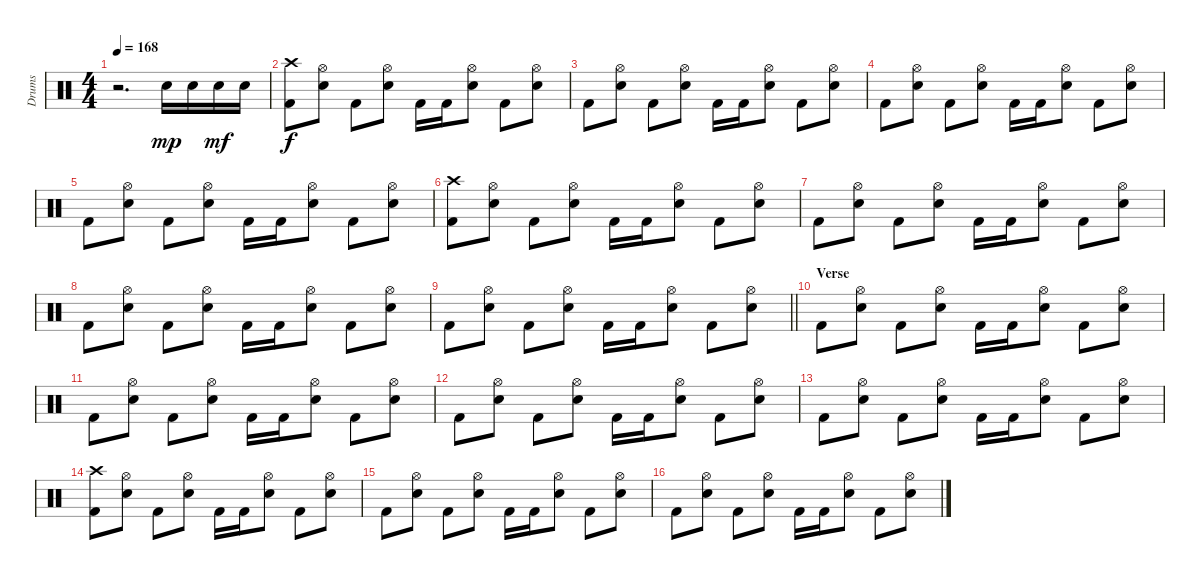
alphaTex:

\track ("Drums" "Drums") {instrument percussion}
\staff {score}
\articulation defaults
\ts (4 4)
\tempo 168
\clef neutral
\ks c
r.2{d dy mp} "Snare (hit) 2".16 "Snare (hit) 2".16 "Snare (hit) 2".16{dy mf} "Snare (hit) 2".16 |
("Kick (hit) 2" "Crash high (hit)").8{dy f} ("Snare (hit) 2" "Hi-Hat (open)").8 "Kick (hit) 2".8 ("Snare (hit) 2" "Hi-Hat (open)").8 "Kick (hit) 2".16 "Kick (hit) 2".16 ("Snare (hit) 2" "Hi-Hat (open)").8 "Kick (hit) 2".8 ("Snare (hit) 2" "Hi-Hat (open)").8 |
"Kick (hit) 2".8 ("Snare (hit) 2" "Hi-Hat (open)").8 "Kick (hit) 2".8 ("Snare (hit) 2" "Hi-Hat (open)").8 "Kick (hit) 2".16 "Kick (hit) 2".16 ("Snare (hit) 2" "Hi-Hat (open)").8 "Kick (hit) 2".8 ("Snare (hit) 2" "Hi-Hat (open)").8 |
"Kick (hit) 2".8 ("Snare (hit) 2" "Hi-Hat (open)").8 "Kick (hit) 2".8 ("Snare (hit) 2" "Hi-Hat (open)").8 "Kick (hit) 2".16 "Kick (hit) 2".16 ("Snare (hit) 2" "Hi-Hat (open)").8 "Kick (hit) 2".8 ("Snare (hit) 2" "Hi-Hat (open)").8 |
"Kick (hit) 2".8 ("Snare (hit) 2" "Hi-Hat (open)").8 "Kick (hit) 2".8 ("Snare (hit) 2" "Hi-Hat (open)").8 "Kick (hit) 2".16 "Kick (hit) 2".16 ("Snare (hit) 2" "Hi-Hat (open)").8 "Kick (hit) 2".8 ("Snare (hit) 2" "Hi-Hat (open)").8 |
("Kick (hit) 2" "Crash high (hit)").8 ("Snare (hit) 2" "Hi-Hat (open)").8 "Kick (hit) 2".8 ("Snare (hit) 2" "Hi-Hat (open)").8 "Kick (hit) 2".16 "Kick (hit) 2".16 ("Snare (hit) 2" "Hi-Hat (open)").8 "Kick (hit) 2".8 ("Snare (hit) 2" "Hi-Hat (open)").8 |
"Kick (hit) 2".8 ("Snare (hit) 2" "Hi-Hat (open)").8 "Kick (hit) 2".8 ("Snare (hit) 2" "Hi-Hat (open)").8 "Kick (hit) 2".16 "Kick (hit) 2".16 ("Snare (hit) 2" "Hi-Hat (open)").8 "Kick (hit) 2".8 ("Snare (hit) 2" "Hi-Hat (open)").8 |
"Kick (hit) 2".8 ("Snare (hit) 2" "Hi-Hat (open)").8 "Kick (hit) 2".8 ("Snare (hit) 2" "Hi-Hat (open)").8 "Kick (hit) 2".16 "Kick (hit) 2".16 ("Snare (hit) 2" "Hi-Hat (open)").8 "Kick (hit) 2".8 ("Snare (hit) 2" "Hi-Hat (open)").8 |
\barLineRight lightlight "Kick (hit) 2".8
("Snare (hit) 2" "Hi-Hat (open)").8 "Kick (hit) 2".8 ("Snare (hit) 2" "Hi-Hat (open)").8 "Kick (hit) 2".16 "Kick (hit) 2".16 ("Snare (hit) 2" "Hi-Hat (open)").8 "Kick (hit) 2".8 ("Snare (hit) 2" "Hi-Hat (open)").8 |
\section ("" "Verse")
"Kick (hit) 2".8 ("Snare (hit) 2" "Hi-Hat (open)").8 "Kick (hit) 2".8 ("Snare (hit) 2" "Hi-Hat (open)").8 "Kick (hit) 2".16 "Kick (hit) 2".16 ("Snare (hit) 2" "Hi-Hat (open)").8 "Kick (hit) 2".8 ("Snare (hit) 2" "Hi-Hat (open)").8 |
"Kick (hit) 2".8 ("Snare (hit) 2" "Hi-Hat (open)").8 "Kick (hit) 2".8 ("Snare (hit) 2" "Hi-Hat (open)").8 "Kick (hit) 2".16 "Kick (hit) 2".16 ("Snare (hit) 2" "Hi-Hat (open)").8 "Kick (hit) 2".8 ("Snare (hit) 2" "Hi-Hat (open)").8 |
"Kick (hit) 2".8 ("Snare (hit) 2" "Hi-Hat (open)").8 "Kick (hit) 2".8 ("Snare (hit) 2" "Hi-Hat (open)").8 "Kick (hit) 2".16 "Kick (hit) 2".16 ("Snare (hit) 2" "Hi-Hat (open)").8 "Kick (hit) 2".8 ("Snare (hit) 2" "Hi-Hat (open)").8 |
"Kick (hit) 2".8 ("Snare (hit) 2" "Hi-Hat (open)").8 "Kick (hit) 2".8 ("Snare (hit) 2" "Hi-Hat (open)").8 "Kick (hit) 2".16 "Kick (hit) 2".16 ("Snare (hit) 2" "Hi-Hat (open)").8 "Kick (hit) 2".8 ("Snare (hit) 2" "Hi-Hat (open)").8 |
("Kick (hit) 2" "Crash high (hit)").8 ("Snare (hit) 2" "Hi-Hat (open)").8 "Kick (hit) 2".8 ("Snare (hit) 2" "Hi-Hat (open)").8 "Kick (hit) 2".16 "Kick (hit) 2".16 ("Snare (hit) 2" "Hi-Hat (open)").8 "Kick (hit) 2".8 ("Snare (hit) 2" "Hi-Hat (open)").8 |
"Kick (hit) 2".8 ("Snare (hit) 2" "Hi-Hat (open)").8 "Kick (hit) 2".8 ("Snare (hit) 2" "Hi-Hat (open)").8 "Kick (hit) 2".16 "Kick (hit) 2".16 ("Snare (hit) 2" "Hi-Hat (open)").8 "Kick (hit) 2".8 ("Snare (hit) 2" "Hi-Hat (open)").8 |
"Kick (hit) 2".8 ("Snare (hit) 2" "Hi-Hat (open)").8 "Kick (hit) 2".8 ("Snare (hit) 2" "Hi-Hat (open)").8 "Kick (hit) 2".16 "Kick (hit) 2".16 ("Snare (hit) 2" "Hi-Hat (open)").8 "Kick (hit) 2".8 ("Snare (hit) 2" "Hi-Hat (open)").8
